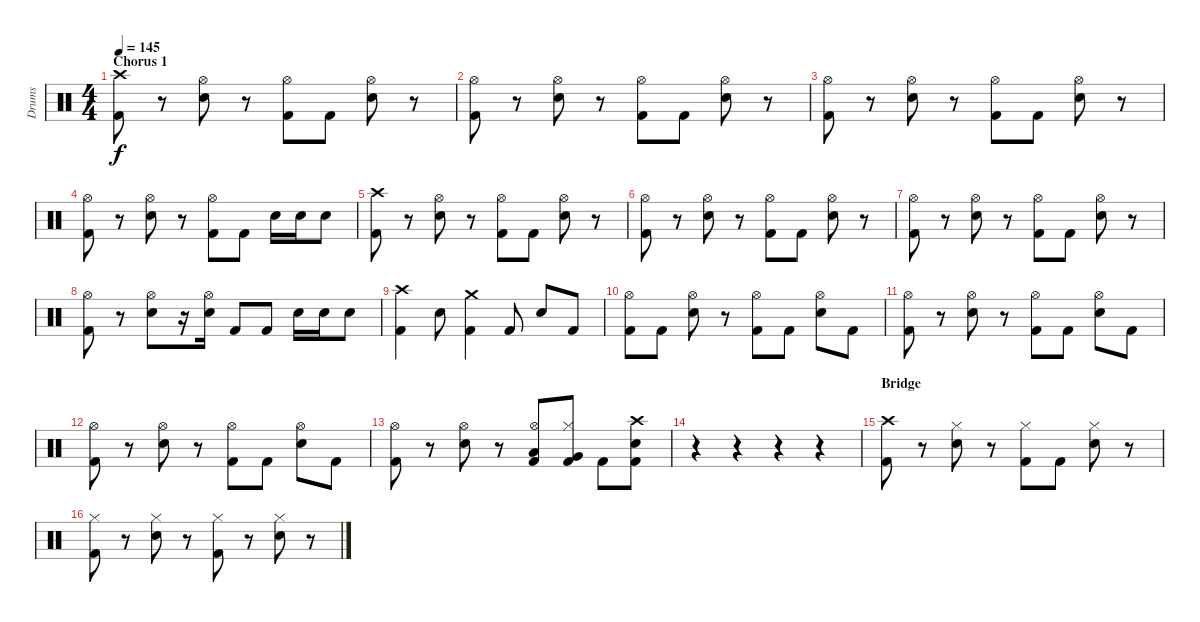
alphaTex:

\track ("Drums" "Drums") {instrument percussion}
\staff {score}
\articulation defaults
\ts (4 4)
\section ("" "Chorus 1")
\tempo 145
\clef neutral
\ks c
("Crash high (hit)" "Kick (hit) 2").8{dy f} r.8 ("Hi-Hat (open)" "Snare (hit) 2").8 r.8 ("Hi-Hat (open)" "Kick (hit) 2").8 "Kick (hit) 2".8 ("Hi-Hat (open)" "Snare (hit) 2").8 r.8 |
("Hi-Hat (open)" "Kick (hit) 2").8 r.8 ("Hi-Hat (open)" "Snare (hit) 2").8 r.8 ("Hi-Hat (open)" "Kick (hit) 2").8 "Kick (hit) 2".8 ("Hi-Hat (open)" "Snare (hit) 2").8 r.8 |
("Hi-Hat (open)" "Kick (hit) 2").8 r.8 ("Hi-Hat (open)" "Snare (hit) 2").8 r.8 ("Hi-Hat (open)" "Kick (hit) 2").8 "Kick (hit) 2".8 ("Hi-Hat (open)" "Snare (hit) 2").8 r.8 |
("Hi-Hat (open)" "Kick (hit) 2").8 r.8 ("Hi-Hat (open)" "Snare (hit) 2").8 r.8 ("Hi-Hat (open)" "Kick (hit) 2").8 "Kick (hit) 2".8 "Snare (hit) 2".16 "Snare (hit) 2".16 "Snare (hit) 2".8 |
("Crash high (hit)" "Kick (hit) 2").8 r.8 ("Hi-Hat (open)" "Snare (hit) 2").8 r.8 ("Hi-Hat (open)" "Kick (hit) 2").8 "Kick (hit) 2".8 ("Hi-Hat (open)" "Snare (hit) 2").8 r.8 |
("Hi-Hat (open)" "Kick (hit) 2").8 r.8 ("Hi-Hat (open)" "Snare (hit) 2").8 r.8 ("Hi-Hat (open)" "Kick (hit) 2").8 "Kick (hit) 2".8 ("Hi-Hat (open)" "Snare (hit) 2").8 r.8 |
("Hi-Hat (open)" "Kick (hit) 2").8 r.8 ("Hi-Hat (open)" "Snare (hit) 2").8 r.8 ("Hi-Hat (open)" "Kick (hit) 2").8 "Kick (hit) 2".8 ("Hi-Hat (open)" "Snare (hit) 2").8 r.8 |
("Hi-Hat (open)" "Kick (hit) 2").8 r.8 ("Hi-Hat (open)" "Snare (hit) 2").8 r.16 ("Hi-Hat (open)" "Snare (hit) 2").16 "Kick (hit) 2".8 "Kick (hit) 2".8 "Snare (hit) 2".16 "Snare (hit) 2".16 "Snare (hit) 2".8 |
\section ("" "")
("Crash high (hit)" "Kick (hit) 2").4 "Snare (hit) 2".8 ("Crash medium (hit)" "Kick (hit) 2").4 "Kick (hit) 2".8 "Snare (hit) 2".8 "Kick (hit) 2".8 |
("Hi-Hat (open)" "Kick (hit) 2").8 "Kick (hit) 2".8 ("Hi-Hat (open)" "Snare (hit) 2").8 r.8 ("Hi-Hat (open)" "Kick (hit) 2").8 "Kick (hit) 2".8 ("Hi-Hat (open)" "Snare (hit) 2").8 "Kick (hit) 2".8 |
("Hi-Hat (open)" "Kick (hit) 2").8 r.8 ("Hi-Hat (open)" "Snare (hit) 2").8 r.8 ("Hi-Hat (open)" "Kick (hit) 2").8 "Kick (hit) 2".8 ("Hi-Hat (open)" "Snare (hit) 2").8 "Kick (hit) 2".8 |
("Hi-Hat (open)" "Kick (hit) 2").8 r.8 ("Hi-Hat (open)" "Snare (hit) 2").8 r.8 ("Hi-Hat (open)" "Kick (hit) 2").8 "Kick (hit) 2".8 ("Hi-Hat (open)" "Snare (hit) 2").8 "Kick (hit) 2".8 |
("Hi-Hat (open)" "Kick (hit) 2").8 r.8 ("Hi-Hat (open)" "Snare (hit) 2").8 r.8 ("Hi-Hat (open)" "Low Floor Tom (hit)" "Kick (hit) 2").8 ("Hi-Hat (closed)" "Very Low Tom (hit)" "Kick (hit) 2").8 "Kick (hit) 2".8 ("Crash high (hit)" "Snare (hit) 2" "Kick (hit) 2").8 |
r.4 r.4 r.4 r.4 |
\section ("" "Bridge")
("Crash high (hit)" "Kick (hit) 2").8 r.8 ("Hi-Hat (closed)" "Snare (hit) 2").8 r.8 ("Hi-Hat (closed)" "Kick (hit) 2").8 "Kick (hit) 2".8 ("Hi-Hat (closed)" "Snare (hit) 2").8 r.8 |
("Hi-Hat (closed)" "Kick (hit) 2").8 r.8 ("Hi-Hat (closed)" "Snare (hit) 2").8 r.8 ("Hi-Hat (closed)" "Kick (hit) 2").8 r.8 ("Hi-Hat (closed)" "Snare (hit) 2").8 r.8
